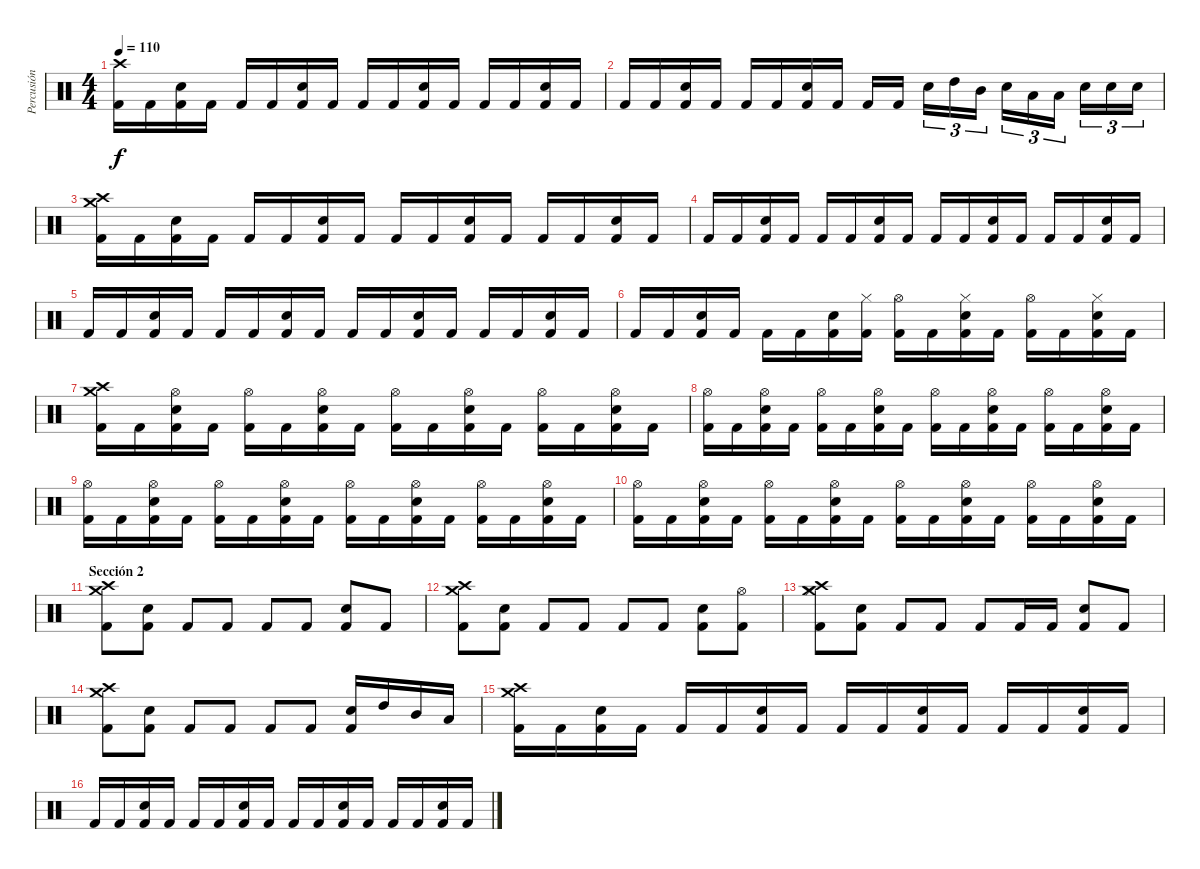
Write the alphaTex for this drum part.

\track ("Percusión" "Percusión") {instrument percussion}
\staff {score}
\articulation defaults
\ts (4 4)
\tempo 110
\clef neutral
\ks c
("Crash high (hit)" "Kick (hit) 2").16{dy f} "Kick (hit) 2".16 ("Electric Snare (hit)" "Kick (hit) 2").16 "Kick (hit) 2".16 "Kick (hit) 2".16 "Kick (hit) 2".16 ("Electric Snare (hit)" "Kick (hit) 2").16 "Kick (hit) 2".16 "Kick (hit) 2".16 "Kick (hit) 2".16 ("Electric Snare (hit)" "Kick (hit) 2").16 "Kick (hit) 2".16 "Kick (hit) 2".16 "Kick (hit) 2".16 ("Electric Snare (hit)" "Kick (hit) 2").16 "Kick (hit) 2".16 |
"Kick (hit) 2".16 "Kick (hit) 2".16 ("Electric Snare (hit)" "Kick (hit) 2").16 "Kick (hit) 2".16 "Kick (hit) 2".16 "Kick (hit) 2".16 ("Electric Snare (hit)" "Kick (hit) 2").16 "Kick (hit) 2".16 "Kick (hit) 2".16 "Kick (hit) 2".16 "Electric Snare (hit)".16{tu (3 2)} "High Tom (hit)".16{tu (3 2)} "Mid Tom (hit)".16{tu (3 2)} "Electric Snare (hit)".16{tu (3 2)} "Low Tom (hit)".16{tu (3 2)} "Low Tom (hit)".16{tu (3 2)} "Electric Snare (hit)".16{tu (3 2)} "Electric Snare (hit)".16{tu (3 2)} "Electric Snare (hit)".16{tu (3 2)} |
("Crash high (hit)" "Crash medium (hit)" "Kick (hit) 2").16 "Kick (hit) 2".16 ("Electric Snare (hit)" "Kick (hit) 2").16 "Kick (hit) 2".16 "Kick (hit) 2".16 "Kick (hit) 2".16 ("Electric Snare (hit)" "Kick (hit) 2").16 "Kick (hit) 2".16 "Kick (hit) 2".16 "Kick (hit) 2".16 ("Electric Snare (hit)" "Kick (hit) 2").16 "Kick (hit) 2".16 "Kick (hit) 2".16 "Kick (hit) 2".16 ("Electric Snare (hit)" "Kick (hit) 2").16 "Kick (hit) 2".16 |
"Kick (hit) 2".16 "Kick (hit) 2".16 ("Electric Snare (hit)" "Kick (hit) 2").16 "Kick (hit) 2".16 "Kick (hit) 2".16 "Kick (hit) 2".16 ("Electric Snare (hit)" "Kick (hit) 2").16 "Kick (hit) 2".16 "Kick (hit) 2".16 "Kick (hit) 2".16 ("Electric Snare (hit)" "Kick (hit) 2").16 "Kick (hit) 2".16 "Kick (hit) 2".16 "Kick (hit) 2".16 ("Electric Snare (hit)" "Kick (hit) 2").16 "Kick (hit) 2".16 |
"Kick (hit) 2".16 "Kick (hit) 2".16 ("Electric Snare (hit)" "Kick (hit) 2").16 "Kick (hit) 2".16 "Kick (hit) 2".16 "Kick (hit) 2".16 ("Electric Snare (hit)" "Kick (hit) 2").16 "Kick (hit) 2".16 "Kick (hit) 2".16 "Kick (hit) 2".16 ("Electric Snare (hit)" "Kick (hit) 2").16 "Kick (hit) 2".16 "Kick (hit) 2".16 "Kick (hit) 2".16 ("Electric Snare (hit)" "Kick (hit) 2").16 "Kick (hit) 2".16 |
"Kick (hit) 2".16 "Kick (hit) 2".16 ("Electric Snare (hit)" "Kick (hit) 2").16 "Kick (hit) 2".16 "Kick (hit) 2".16 "Kick (hit) 2".16 ("Electric Snare (hit)" "Kick (hit) 2").16 ("Hi-Hat (closed)" "Kick (hit) 2").16 ("Hi-Hat (open)" "Kick (hit) 2").16 "Kick (hit) 2".16 ("Hi-Hat (closed)" "Electric Snare (hit)" "Kick (hit) 2").16 "Kick (hit) 2".16 ("Hi-Hat (open)" "Kick (hit) 2").16 "Kick (hit) 2".16 ("Hi-Hat (closed)" "Electric Snare (hit)" "Kick (hit) 2").16 "Kick (hit) 2".16 |
("Crash high (hit)" "Crash medium (hit)" "Kick (hit) 2").16 "Kick (hit) 2".16 ("Hi-Hat (open)" "Electric Snare (hit)" "Kick (hit) 2").16 "Kick (hit) 2".16 ("Hi-Hat (open)" "Kick (hit) 2").16 "Kick (hit) 2".16 ("Hi-Hat (open)" "Electric Snare (hit)" "Kick (hit) 2").16 "Kick (hit) 2".16 ("Hi-Hat (open)" "Kick (hit) 2").16 "Kick (hit) 2".16 ("Hi-Hat (open)" "Electric Snare (hit)" "Kick (hit) 2").16 "Kick (hit) 2".16 ("Hi-Hat (open)" "Kick (hit) 2").16 "Kick (hit) 2".16 ("Hi-Hat (open)" "Electric Snare (hit)" "Kick (hit) 2").16 "Kick (hit) 2".16 |
("Hi-Hat (open)" "Kick (hit) 2").16 "Kick (hit) 2".16 ("Hi-Hat (open)" "Electric Snare (hit)" "Kick (hit) 2").16 "Kick (hit) 2".16 ("Hi-Hat (open)" "Kick (hit) 2").16 "Kick (hit) 2".16 ("Hi-Hat (open)" "Electric Snare (hit)" "Kick (hit) 2").16 "Kick (hit) 2".16 ("Hi-Hat (open)" "Kick (hit) 2").16 "Kick (hit) 2".16 ("Hi-Hat (open)" "Electric Snare (hit)" "Kick (hit) 2").16 "Kick (hit) 2".16 ("Hi-Hat (open)" "Kick (hit) 2").16 "Kick (hit) 2".16 ("Hi-Hat (open)" "Electric Snare (hit)" "Kick (hit) 2").16 "Kick (hit) 2".16 |
("Hi-Hat (open)" "Kick (hit) 2").16 "Kick (hit) 2".16 ("Hi-Hat (open)" "Electric Snare (hit)" "Kick (hit) 2").16 "Kick (hit) 2".16 ("Hi-Hat (open)" "Kick (hit) 2").16 "Kick (hit) 2".16 ("Hi-Hat (open)" "Electric Snare (hit)" "Kick (hit) 2").16 "Kick (hit) 2".16 ("Hi-Hat (open)" "Kick (hit) 2").16 "Kick (hit) 2".16 ("Hi-Hat (open)" "Electric Snare (hit)" "Kick (hit) 2").16 "Kick (hit) 2".16 ("Hi-Hat (open)" "Kick (hit) 2").16 "Kick (hit) 2".16 ("Hi-Hat (open)" "Electric Snare (hit)" "Kick (hit) 2").16 "Kick (hit) 2".16 |
("Hi-Hat (open)" "Kick (hit) 2").16 "Kick (hit) 2".16 ("Hi-Hat (open)" "Electric Snare (hit)" "Kick (hit) 2").16 "Kick (hit) 2".16 ("Hi-Hat (open)" "Kick (hit) 2").16 "Kick (hit) 2".16 ("Hi-Hat (open)" "Electric Snare (hit)" "Kick (hit) 2").16 "Kick (hit) 2".16 ("Hi-Hat (open)" "Kick (hit) 2").16 "Kick (hit) 2".16 ("Hi-Hat (open)" "Electric Snare (hit)" "Kick (hit) 2").16 "Kick (hit) 2".16 ("Hi-Hat (open)" "Kick (hit) 2").16 "Kick (hit) 2".16 ("Hi-Hat (open)" "Electric Snare (hit)" "Kick (hit) 2").16 "Kick (hit) 2".16 |
\section ("" "Sección 2")
("Crash high (hit)" "Crash medium (hit)" "Kick (hit) 2").8 ("Electric Snare (hit)" "Kick (hit) 2").8 "Kick (hit) 2".8 "Kick (hit) 2".8 "Kick (hit) 2".8 "Kick (hit) 2".8 ("Electric Snare (hit)" "Kick (hit) 2").8 "Kick (hit) 2".8 |
("Crash high (hit)" "Crash medium (hit)" "Kick (hit) 2").8 ("Electric Snare (hit)" "Kick (hit) 2").8 "Kick (hit) 2".8 "Kick (hit) 2".8 "Kick (hit) 2".8 "Kick (hit) 2".8 ("Electric Snare (hit)" "Kick (hit) 2").8 ("Hi-Hat (open)" "Kick (hit) 2").8 |
("Crash high (hit)" "Crash medium (hit)" "Hi-Hat (closed)" "Kick (hit) 2").8 ("Electric Snare (hit)" "Kick (hit) 2").8 "Kick (hit) 2".8 "Kick (hit) 2".8 "Kick (hit) 2".8 "Kick (hit) 2".16 "Kick (hit) 2".16 ("Electric Snare (hit)" "Kick (hit) 2").8 "Kick (hit) 2".8 |
("Crash high (hit)" "Crash medium (hit)" "Kick (hit) 2").8 ("Electric Snare (hit)" "Kick (hit) 2").8 "Kick (hit) 2".8 "Kick (hit) 2".8 "Kick (hit) 2".8 "Kick (hit) 2".8 ("Electric Snare (hit)" "Kick (hit) 2").16 "High Tom (hit)".16 "Mid Tom (hit)".16 "Low Tom (hit)".16 |
("Crash high (hit)" "Crash medium (hit)" "Kick (hit) 2").16 "Kick (hit) 2".16 ("Electric Snare (hit)" "Kick (hit) 2").16 "Kick (hit) 2".16 "Kick (hit) 2".16 "Kick (hit) 2".16 ("Electric Snare (hit)" "Kick (hit) 2").16 "Kick (hit) 2".16 "Kick (hit) 2".16 "Kick (hit) 2".16 ("Electric Snare (hit)" "Kick (hit) 2").16 "Kick (hit) 2".16 "Kick (hit) 2".16 "Kick (hit) 2".16 ("Electric Snare (hit)" "Kick (hit) 2").16 "Kick (hit) 2".16 |
"Kick (hit) 2".16 "Kick (hit) 2".16 ("Electric Snare (hit)" "Kick (hit) 2").16 "Kick (hit) 2".16 "Kick (hit) 2".16 "Kick (hit) 2".16 ("Electric Snare (hit)" "Kick (hit) 2").16 "Kick (hit) 2".16 "Kick (hit) 2".16 "Kick (hit) 2".16 ("Electric Snare (hit)" "Kick (hit) 2").16 "Kick (hit) 2".16 "Kick (hit) 2".16 "Kick (hit) 2".16 ("Electric Snare (hit)" "Kick (hit) 2").16 "Kick (hit) 2".16
